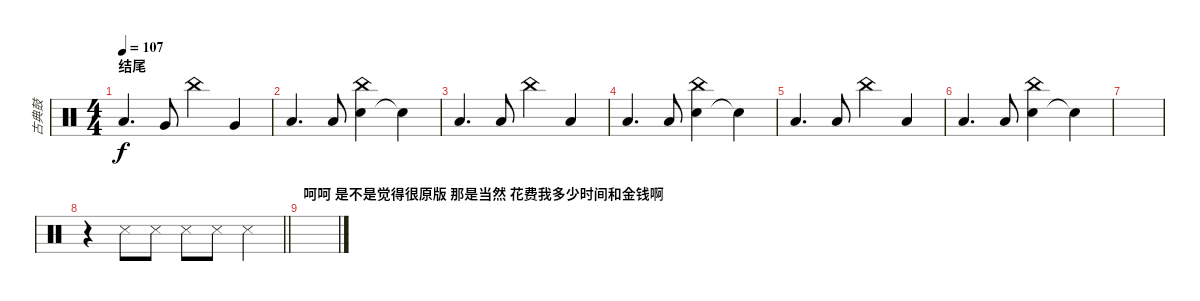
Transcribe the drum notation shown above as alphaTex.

\track ("古典鼓" "古典鼓") {instrument percussion}
\staff {score}
\articulation defaults
\ts (4 4)
\section ("" "结尾")
\tempo 107
\clef neutral
\ks c "Low Floor Tom (hit)".4{d dy f} "Very Low Tom (hit)".8 "China (hit)".4 "Very Low Tom (hit)".4
|
"Low Floor Tom (hit)".4{d} "Low Floor Tom (hit)".8 ("Hand Clap (hit)" "China (hit)").4 "Snare (hit)"{t}.4 |
"Low Floor Tom (hit)".4{d} "Low Floor Tom (hit)".8 "China (hit)".4 "Low Floor Tom (hit)".4 |
"Low Floor Tom (hit)".4{d} "Low Floor Tom (hit)".8 ("Hand Clap (hit)" "China (hit)").4 "Snare (hit)"{t}.4 |
"Low Floor Tom (hit)".4{d} "Low Floor Tom (hit)".8 "China (hit)".4 "Low Floor Tom (hit)".4 |
"Low Floor Tom (hit)".4{d} "Low Floor Tom (hit)".8 ("Hand Clap (hit)" "China (hit)").4 "Snare (hit)"{t}.4 |
|
\barLineRight lightlight
r.4 "Snare (side stick) 3".8 "Snare (side stick) 3".8 "Snare (side stick) 3".8 "Snare (side stick) 3".8 "Snare (side stick) 3".4 |
\section ("" "呵呵 是不是觉得很原版 那是当然 花费我多少时间和金钱啊")
